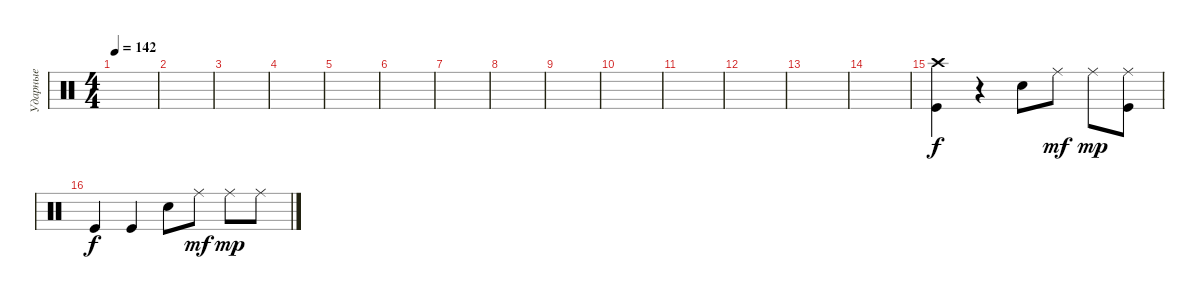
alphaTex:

\track ("Ударные" "Ударные") {instrument percussion}
\staff {score}
\articulation defaults
\ts (4 4)
\tempo 142
\clef neutral
\ks c
|
|
|
|
|
|
|
|
|
|
|
|
|
|
("Kick (hit)" "Crash high (hit)").4 r.4 "Electric Snare (hit)".8{dy f} "Ride (middle)".8{dy mf} "Ride (middle)".8{dy mp} ("Kick (hit)" "Ride (middle)").8 |
"Kick (hit)".4{dy f} "Kick (hit)".4 "Electric Snare (hit)".8 "Ride (middle)".8{dy mf} "Ride (middle)".8{dy mp} "Ride (middle)".8
